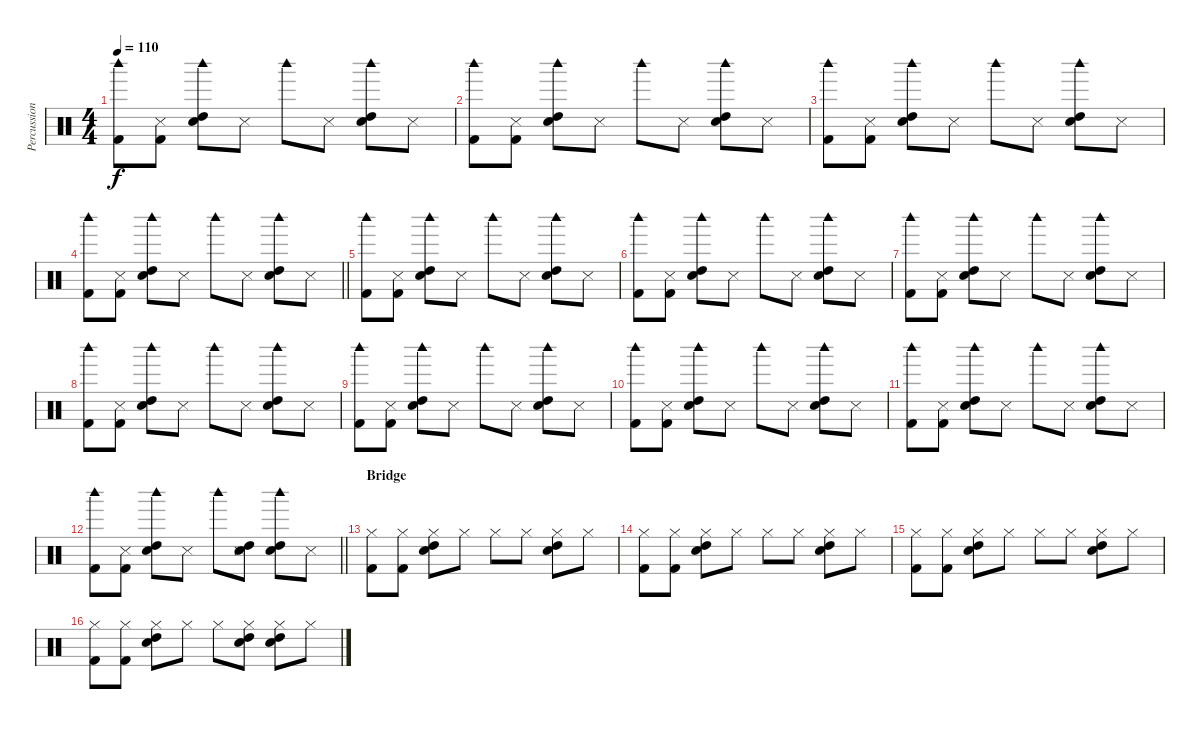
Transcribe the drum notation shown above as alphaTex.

\track ("Percussion" "Percussion") {instrument percussion}
\staff {score}
\articulation defaults
\ts (4 4)
\tempo 110
\clef neutral
\ks c
("Woodblock high (hit)" "Kick (hit) 2").8{dy f} ("Snare (side stick) 3" "Kick (hit) 2").8 ("Woodblock high (hit)" "High Tom (hit)" "Snare (hit) 2").8 "Snare (side stick) 3".8 "Woodblock high (hit)".8 "Snare (side stick) 3".8 ("Woodblock high (hit)" "High Tom (hit)" "Snare (hit) 2").8 "Snare (side stick) 3".8 |
("Woodblock high (hit)" "Kick (hit) 2").8 ("Snare (side stick) 3" "Kick (hit) 2").8 ("Woodblock high (hit)" "High Tom (hit)" "Snare (hit) 2").8 "Snare (side stick) 3".8 "Woodblock high (hit)".8 "Snare (side stick) 3".8 ("Woodblock high (hit)" "High Tom (hit)" "Snare (hit) 2").8 "Snare (side stick) 3".8 |
("Woodblock high (hit)" "Kick (hit) 2").8 ("Snare (side stick) 3" "Kick (hit) 2").8 ("Woodblock high (hit)" "High Tom (hit)" "Snare (hit) 2").8 "Snare (side stick) 3".8 "Woodblock high (hit)".8 "Snare (side stick) 3".8 ("Woodblock high (hit)" "High Tom (hit)" "Snare (hit) 2").8 "Snare (side stick) 3".8 |
\barLineRight lightlight
("Woodblock high (hit)" "Kick (hit) 2").8 ("Snare (side stick) 3" "Kick (hit) 2").8 ("Woodblock high (hit)" "High Tom (hit)" "Snare (hit) 2").8 "Snare (side stick) 3".8 "Woodblock high (hit)".8 "Snare (side stick) 3".8 ("Woodblock high (hit)" "High Tom (hit)" "Snare (hit) 2").8 "Snare (side stick) 3".8 |
("Woodblock high (hit)" "Kick (hit) 2").8 ("Snare (side stick) 3" "Kick (hit) 2").8 ("Woodblock high (hit)" "High Tom (hit)" "Snare (hit) 2").8 "Snare (side stick) 3".8 "Woodblock high (hit)".8 "Snare (side stick) 3".8 ("Woodblock high (hit)" "High Tom (hit)" "Snare (hit) 2").8 "Snare (side stick) 3".8 |
("Woodblock high (hit)" "Kick (hit) 2").8 ("Snare (side stick) 3" "Kick (hit) 2").8 ("Woodblock high (hit)" "High Tom (hit)" "Snare (hit) 2").8 "Snare (side stick) 3".8 "Woodblock high (hit)".8 "Snare (side stick) 3".8 ("Woodblock high (hit)" "High Tom (hit)" "Snare (hit) 2").8 "Snare (side stick) 3".8 |
("Woodblock high (hit)" "Kick (hit) 2").8 ("Snare (side stick) 3" "Kick (hit) 2").8 ("Woodblock high (hit)" "High Tom (hit)" "Snare (hit) 2").8 "Snare (side stick) 3".8 "Woodblock high (hit)".8 "Snare (side stick) 3".8 ("Woodblock high (hit)" "High Tom (hit)" "Snare (hit) 2").8 "Snare (side stick) 3".8 |
("Woodblock high (hit)" "Kick (hit) 2").8 ("Snare (side stick) 3" "Kick (hit) 2").8 ("Woodblock high (hit)" "High Tom (hit)" "Snare (hit) 2").8 "Snare (side stick) 3".8 "Woodblock high (hit)".8 "Snare (side stick) 3".8 ("Woodblock high (hit)" "High Tom (hit)" "Snare (hit) 2").8 "Snare (side stick) 3".8 |
("Woodblock high (hit)" "Kick (hit) 2").8 ("Snare (side stick) 3" "Kick (hit) 2").8 ("Woodblock high (hit)" "High Tom (hit)" "Snare (hit) 2").8 "Snare (side stick) 3".8 "Woodblock high (hit)".8 "Snare (side stick) 3".8 ("Woodblock high (hit)" "High Tom (hit)" "Snare (hit) 2").8 "Snare (side stick) 3".8 |
("Woodblock high (hit)" "Kick (hit) 2").8 ("Snare (side stick) 3" "Kick (hit) 2").8 ("Woodblock high (hit)" "High Tom (hit)" "Snare (hit) 2").8 "Snare (side stick) 3".8 "Woodblock high (hit)".8 "Snare (side stick) 3".8 ("Woodblock high (hit)" "High Tom (hit)" "Snare (hit) 2").8 "Snare (side stick) 3".8 |
("Woodblock high (hit)" "Kick (hit) 2").8 ("Snare (side stick) 3" "Kick (hit) 2").8 ("Woodblock high (hit)" "High Tom (hit)" "Snare (hit) 2").8 "Snare (side stick) 3".8 "Woodblock high (hit)".8 "Snare (side stick) 3".8 ("Woodblock high (hit)" "High Tom (hit)" "Snare (hit) 2").8 "Snare (side stick) 3".8 |
\barLineRight lightlight
("Woodblock high (hit)" "Kick (hit) 2").8 ("Snare (side stick) 3" "Kick (hit) 2").8 ("Woodblock high (hit)" "High Tom (hit)" "Snare (hit) 2").8 "Snare (side stick) 3".8 "Woodblock high (hit)".8 ("Snare (side stick) 3" "High Tom (hit)" "Snare (hit) 2").8 ("Woodblock high (hit)" "High Tom (hit)" "Snare (hit) 2").8 "Snare (side stick) 3".8 |
\section ("" "Bridge")
("Hi-Hat (closed)" "Kick (hit) 2").8 ("Hi-Hat (closed)" "Kick (hit) 2").8 ("Hi-Hat (closed)" "High Tom (hit)" "Snare (hit) 2").8 "Hi-Hat (closed)".8 "Hi-Hat (closed)".8 "Hi-Hat (closed)".8 ("Hi-Hat (closed)" "High Tom (hit)" "Snare (hit) 2").8 "Hi-Hat (closed)".8 |
("Hi-Hat (closed)" "Kick (hit) 2").8 ("Hi-Hat (closed)" "Kick (hit) 2").8 ("Hi-Hat (closed)" "High Tom (hit)" "Snare (hit) 2").8 "Hi-Hat (closed)".8 "Hi-Hat (closed)".8 "Hi-Hat (closed)".8 ("Hi-Hat (closed)" "High Tom (hit)" "Snare (hit) 2").8 "Hi-Hat (closed)".8 |
("Hi-Hat (closed)" "Kick (hit) 2").8 ("Hi-Hat (closed)" "Kick (hit) 2").8 ("Hi-Hat (closed)" "High Tom (hit)" "Snare (hit) 2").8 "Hi-Hat (closed)".8 "Hi-Hat (closed)".8 "Hi-Hat (closed)".8 ("Hi-Hat (closed)" "High Tom (hit)" "Snare (hit) 2").8 "Hi-Hat (closed)".8 |
("Hi-Hat (closed)" "Kick (hit) 2").8 ("Hi-Hat (closed)" "Kick (hit) 2").8 ("Hi-Hat (closed)" "High Tom (hit)" "Snare (hit) 2").8 "Hi-Hat (closed)".8 "Hi-Hat (closed)".8 ("Hi-Hat (closed)" "High Tom (hit)" "Snare (hit) 2").8 ("Hi-Hat (closed)" "High Tom (hit)" "Snare (hit) 2").8 "Hi-Hat (closed)".8
